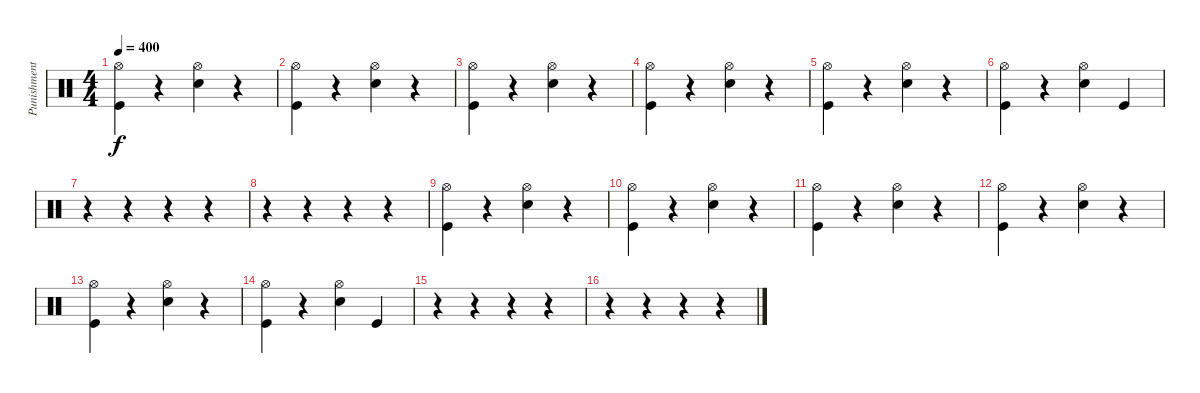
\track ("Punishment" "Punishment") {instrument percussion}
\staff {score}
\articulation defaults
\ts (4 4)
\tempo 400
\clef neutral
\ks c
("Kick (hit)" "Hi-Hat (open)").4{dy f} r.4 ("Electric Snare (hit)" "Hi-Hat (open)").4 r.4 |
("Kick (hit)" "Hi-Hat (open)").4 r.4 ("Electric Snare (hit)" "Hi-Hat (open)").4 r.4 |
("Kick (hit)" "Hi-Hat (open)").4 r.4 ("Electric Snare (hit)" "Hi-Hat (open)").4 r.4 |
("Kick (hit)" "Hi-Hat (open)").4 r.4 ("Electric Snare (hit)" "Hi-Hat (open)").4 r.4 |
("Kick (hit)" "Hi-Hat (open)").4 r.4 ("Electric Snare (hit)" "Hi-Hat (open)").4 r.4 |
("Kick (hit)" "Hi-Hat (open)").4 r.4 ("Electric Snare (hit)" "Hi-Hat (open)").4 "Kick (hit)".4 |
r.4 r.4 r.4 r.4 |
r.4 r.4 r.4 r.4 |
("Kick (hit)" "Hi-Hat (open)").4 r.4 ("Electric Snare (hit)" "Hi-Hat (open)").4 r.4 |
("Kick (hit)" "Hi-Hat (open)").4 r.4 ("Electric Snare (hit)" "Hi-Hat (open)").4 r.4 |
("Kick (hit)" "Hi-Hat (open)").4 r.4 ("Electric Snare (hit)" "Hi-Hat (open)").4 r.4 |
("Kick (hit)" "Hi-Hat (open)").4 r.4 ("Electric Snare (hit)" "Hi-Hat (open)").4 r.4 |
("Kick (hit)" "Hi-Hat (open)").4 r.4 ("Electric Snare (hit)" "Hi-Hat (open)").4 r.4 |
("Kick (hit)" "Hi-Hat (open)").4 r.4 ("Electric Snare (hit)" "Hi-Hat (open)").4 "Kick (hit)".4 |
r.4 r.4 r.4 r.4 |
r.4 r.4 r.4 r.4
